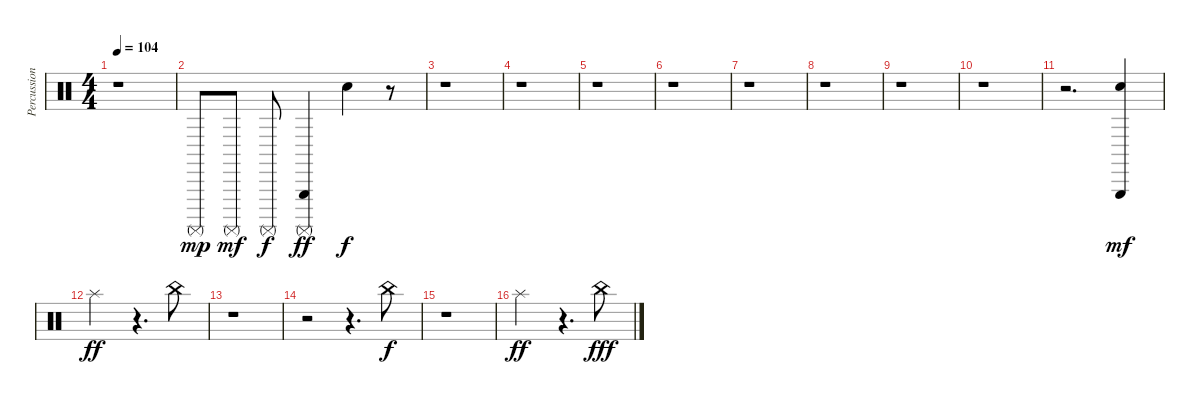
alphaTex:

\track ("Percussion" "Percussion") {instrument percussion}
\staff {score}
\articulation defaults
\ts (4 4)
\tempo 104
\clef neutral
\ks c
r.1{dy ff} |
"Surdo (mute)".8{dy mp} "Surdo (mute)".8{dy mf} "Surdo (mute)".8{dy f} ("Triangle (hit)" "Surdo (mute)").4{dy ff} "Metronome (bell)".4{dy f} r.8 |
r.1 |
r.1 |
r.1 |
r.1 |
r.1 |
r.1 |
r.1 |
r.1 |
r.2{d} ("Metronome (bell)" "Triangle (hit)").4{dy mf} |
"Splash (hit)".2{dy ff} r.4{d} "China (hit)".8 |
r.1 |
r.2 r.4{d} "China (hit)".8{dy f} |
r.1 |
"Splash (hit)".2{dy ff volume 4} r.4{d} "China (hit)".8{dy fff}
